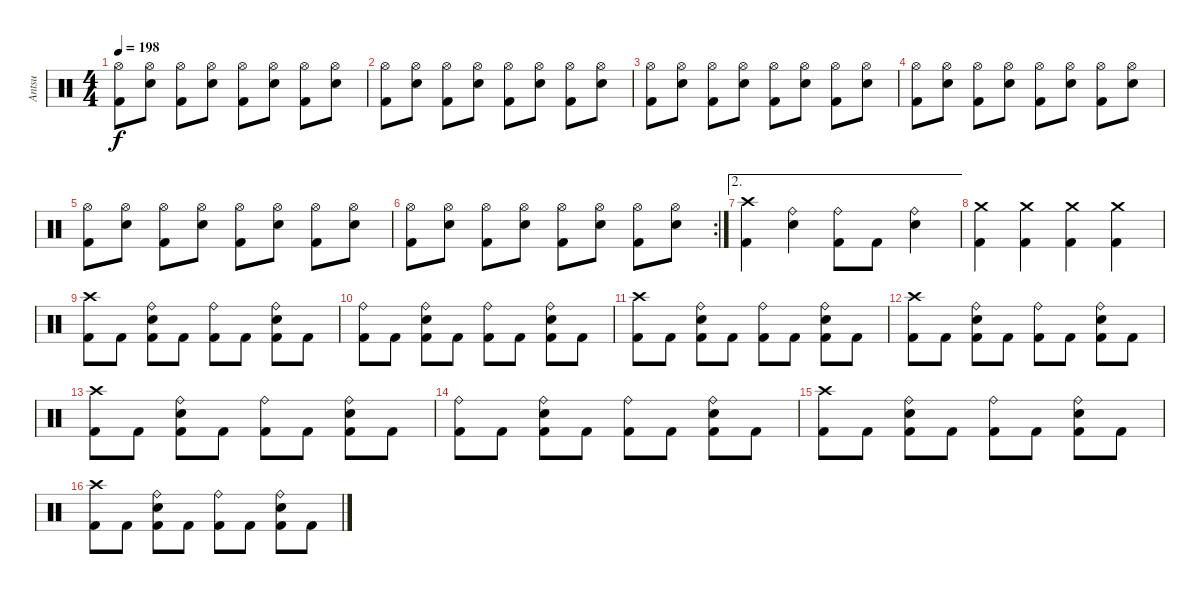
\track ("Antsu" "Antsu") {instrument percussion}
\staff {score}
\articulation defaults
\ts (4 4)
\tempo 198
\clef neutral
\ks c
("Hi-Hat (open)" "Kick (hit) 2").8{dy f} ("Hi-Hat (open)" "Snare (hit) 2").8 ("Hi-Hat (open)" "Kick (hit) 2").8 ("Hi-Hat (open)" "Snare (hit) 2").8 ("Hi-Hat (open)" "Kick (hit) 2").8 ("Hi-Hat (open)" "Snare (hit) 2").8 ("Hi-Hat (open)" "Kick (hit) 2").8 ("Hi-Hat (open)" "Snare (hit) 2").8 |
("Hi-Hat (open)" "Kick (hit) 2").8 ("Hi-Hat (open)" "Snare (hit) 2").8 ("Hi-Hat (open)" "Kick (hit) 2").8 ("Hi-Hat (open)" "Snare (hit) 2").8 ("Hi-Hat (open)" "Kick (hit) 2").8 ("Hi-Hat (open)" "Snare (hit) 2").8 ("Hi-Hat (open)" "Kick (hit) 2").8 ("Hi-Hat (open)" "Snare (hit) 2").8 |
("Hi-Hat (open)" "Kick (hit) 2").8 ("Hi-Hat (open)" "Snare (hit) 2").8 ("Hi-Hat (open)" "Kick (hit) 2").8 ("Hi-Hat (open)" "Snare (hit) 2").8 ("Hi-Hat (open)" "Kick (hit) 2").8 ("Hi-Hat (open)" "Snare (hit) 2").8 ("Hi-Hat (open)" "Kick (hit) 2").8 ("Hi-Hat (open)" "Snare (hit) 2").8 |
("Hi-Hat (open)" "Kick (hit) 2").8 ("Hi-Hat (open)" "Snare (hit) 2").8 ("Hi-Hat (open)" "Kick (hit) 2").8 ("Hi-Hat (open)" "Snare (hit) 2").8 ("Hi-Hat (open)" "Kick (hit) 2").8 ("Hi-Hat (open)" "Snare (hit) 2").8 ("Hi-Hat (open)" "Kick (hit) 2").8 ("Hi-Hat (open)" "Snare (hit) 2").8 |
("Hi-Hat (open)" "Kick (hit) 2").8 ("Hi-Hat (open)" "Snare (hit) 2").8 ("Hi-Hat (open)" "Kick (hit) 2").8 ("Hi-Hat (open)" "Snare (hit) 2").8 ("Hi-Hat (open)" "Kick (hit) 2").8 ("Hi-Hat (open)" "Snare (hit) 2").8 ("Hi-Hat (open)" "Kick (hit) 2").8 ("Hi-Hat (open)" "Snare (hit) 2").8 |
\rc 2
("Hi-Hat (open)" "Kick (hit) 2").8 ("Hi-Hat (open)" "Snare (hit) 2").8 ("Hi-Hat (open)" "Kick (hit) 2").8 ("Hi-Hat (open)" "Snare (hit) 2").8 ("Hi-Hat (open)" "Kick (hit) 2").8 ("Hi-Hat (open)" "Snare (hit) 2").8 ("Hi-Hat (open)" "Kick (hit) 2").8 ("Hi-Hat (open)" "Snare (hit) 2").8 |
\ae 2
("Crash high (hit)" "Kick (hit) 2").4 ("Ride (bell)" "Snare (hit) 2").4 ("Ride (bell)" "Kick (hit) 2").8 "Kick (hit) 2".8 ("Ride (bell)" "Snare (hit) 2").4 |
("Crash medium (hit)" "Kick (hit) 2").4 ("Crash medium (hit)" "Kick (hit) 2").4 ("Crash medium (hit)" "Kick (hit) 2").4 ("Crash medium (hit)" "Kick (hit) 2").4 |
("Crash high (hit)" "Kick (hit) 2").8 "Kick (hit) 2".8 ("Ride (bell)" "Snare (hit) 2" "Kick (hit) 2").8 "Kick (hit) 2".8 ("Ride (bell)" "Kick (hit) 2").8 "Kick (hit) 2".8 ("Ride (bell)" "Snare (hit) 2" "Kick (hit) 2").8 "Kick (hit) 2".8 |
("Ride (bell)" "Kick (hit) 2").8 "Kick (hit) 2".8 ("Ride (bell)" "Snare (hit) 2" "Kick (hit) 2").8 "Kick (hit) 2".8 ("Ride (bell)" "Kick (hit) 2").8 "Kick (hit) 2".8 ("Ride (bell)" "Snare (hit) 2" "Kick (hit) 2").8 "Kick (hit) 2".8 |
("Crash high (hit)" "Kick (hit) 2").8 "Kick (hit) 2".8 ("Ride (bell)" "Snare (hit) 2" "Kick (hit) 2").8 "Kick (hit) 2".8 ("Ride (bell)" "Kick (hit) 2").8 "Kick (hit) 2".8 ("Ride (bell)" "Snare (hit) 2" "Kick (hit) 2").8 "Kick (hit) 2".8 |
("Crash high (hit)" "Kick (hit) 2").8 "Kick (hit) 2".8 ("Ride (bell)" "Snare (hit) 2" "Kick (hit) 2").8 "Kick (hit) 2".8 ("Ride (bell)" "Kick (hit) 2").8 "Kick (hit) 2".8 ("Ride (bell)" "Snare (hit) 2" "Kick (hit) 2").8 "Kick (hit) 2".8 |
("Crash high (hit)" "Kick (hit) 2").8 "Kick (hit) 2".8 ("Ride (bell)" "Snare (hit) 2" "Kick (hit) 2").8 "Kick (hit) 2".8 ("Ride (bell)" "Kick (hit) 2").8 "Kick (hit) 2".8 ("Ride (bell)" "Snare (hit) 2" "Kick (hit) 2").8 "Kick (hit) 2".8 |
("Ride (bell)" "Kick (hit) 2").8 "Kick (hit) 2".8 ("Ride (bell)" "Snare (hit) 2" "Kick (hit) 2").8 "Kick (hit) 2".8 ("Ride (bell)" "Kick (hit) 2").8 "Kick (hit) 2".8 ("Ride (bell)" "Snare (hit) 2" "Kick (hit) 2").8 "Kick (hit) 2".8 |
("Crash high (hit)" "Kick (hit) 2").8 "Kick (hit) 2".8 ("Ride (bell)" "Snare (hit) 2" "Kick (hit) 2").8 "Kick (hit) 2".8 ("Ride (bell)" "Kick (hit) 2").8 "Kick (hit) 2".8 ("Ride (bell)" "Snare (hit) 2" "Kick (hit) 2").8 "Kick (hit) 2".8 |
("Crash high (hit)" "Kick (hit) 2").8 "Kick (hit) 2".8 ("Ride (bell)" "Snare (hit) 2" "Kick (hit) 2").8 "Kick (hit) 2".8 ("Ride (bell)" "Kick (hit) 2").8 "Kick (hit) 2".8 ("Ride (bell)" "Snare (hit) 2" "Kick (hit) 2").8 "Kick (hit) 2".8
